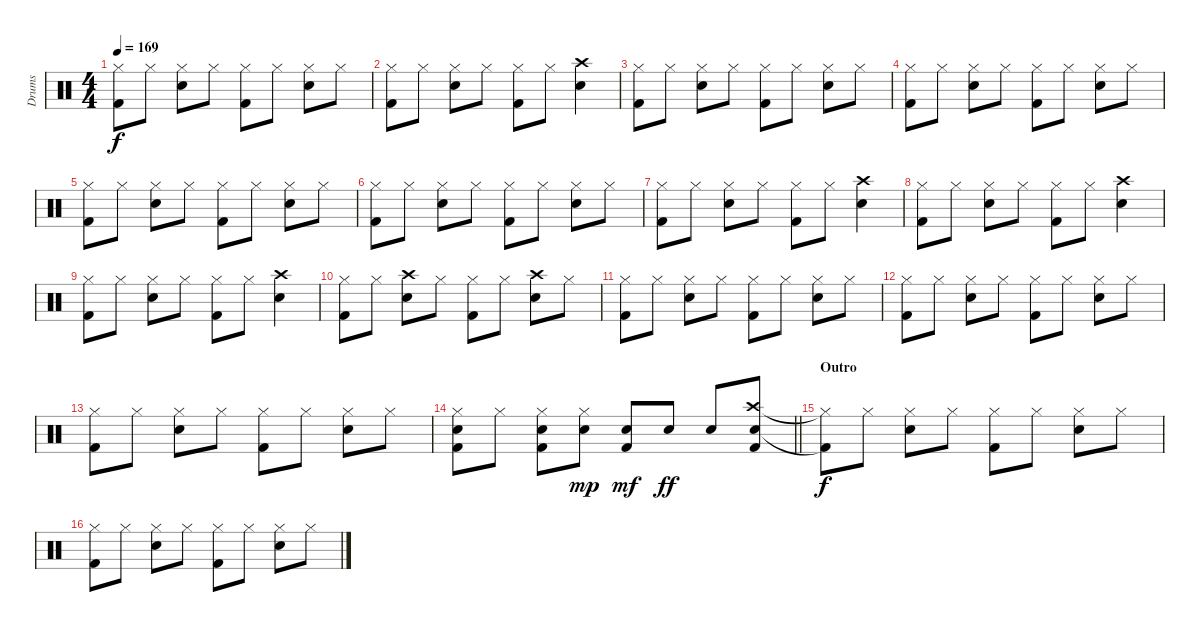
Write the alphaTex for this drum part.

\track ("Drums" "Drums") {instrument percussion}
\staff {score}
\articulation defaults
\ts (4 4)
\tempo 169
\clef neutral
\ks c
("Hi-Hat (closed)" "Kick (hit) 2").8{dy f} "Hi-Hat (closed)".8 ("Hi-Hat (closed)" "Snare (hit) 2").8 "Hi-Hat (closed)".8 ("Hi-Hat (closed)" "Kick (hit) 2").8 "Hi-Hat (closed)".8 ("Hi-Hat (closed)" "Snare (hit) 2").8 "Hi-Hat (closed)".8 |
("Hi-Hat (closed)" "Kick (hit) 2").8 "Hi-Hat (closed)".8 ("Hi-Hat (closed)" "Snare (hit) 2").8 "Hi-Hat (closed)".8 ("Hi-Hat (closed)" "Kick (hit) 2").8 "Hi-Hat (closed)".8 ("Crash high (hit)" "Snare (hit) 2").4 |
("Hi-Hat (closed)" "Kick (hit) 2").8 "Hi-Hat (closed)".8 ("Hi-Hat (closed)" "Snare (hit) 2").8 "Hi-Hat (closed)".8 ("Hi-Hat (closed)" "Kick (hit) 2").8 "Hi-Hat (closed)".8 ("Hi-Hat (closed)" "Snare (hit) 2").8 "Hi-Hat (closed)".8 |
("Hi-Hat (closed)" "Kick (hit) 2").8 "Hi-Hat (closed)".8 ("Hi-Hat (closed)" "Snare (hit) 2").8 "Hi-Hat (closed)".8 ("Hi-Hat (closed)" "Kick (hit) 2").8 "Hi-Hat (closed)".8 ("Hi-Hat (closed)" "Snare (hit) 2").8 "Hi-Hat (closed)".8 |
("Hi-Hat (closed)" "Kick (hit) 2").8 "Hi-Hat (closed)".8 ("Hi-Hat (closed)" "Snare (hit) 2").8 "Hi-Hat (closed)".8 ("Hi-Hat (closed)" "Kick (hit) 2").8 "Hi-Hat (closed)".8 ("Hi-Hat (closed)" "Snare (hit) 2").8 "Hi-Hat (closed)".8 |
("Hi-Hat (closed)" "Kick (hit) 2").8 "Hi-Hat (closed)".8 ("Hi-Hat (closed)" "Snare (hit) 2").8 "Hi-Hat (closed)".8 ("Hi-Hat (closed)" "Kick (hit) 2").8 "Hi-Hat (closed)".8 ("Hi-Hat (closed)" "Snare (hit) 2").8 "Hi-Hat (closed)".8 |
("Hi-Hat (closed)" "Kick (hit) 2").8 "Hi-Hat (closed)".8 ("Hi-Hat (closed)" "Snare (hit) 2").8 "Hi-Hat (closed)".8 ("Hi-Hat (closed)" "Kick (hit) 2").8 "Hi-Hat (closed)".8 ("Crash high (hit)" "Snare (hit) 2").4 |
("Hi-Hat (closed)" "Kick (hit) 2").8 "Hi-Hat (closed)".8 ("Hi-Hat (closed)" "Snare (hit) 2").8 "Hi-Hat (closed)".8 ("Hi-Hat (closed)" "Kick (hit) 2").8 "Hi-Hat (closed)".8 ("Crash high (hit)" "Snare (hit) 2").4 |
("Hi-Hat (closed)" "Kick (hit) 2").8 "Hi-Hat (closed)".8 ("Hi-Hat (closed)" "Snare (hit) 2").8 "Hi-Hat (closed)".8 ("Hi-Hat (closed)" "Kick (hit) 2").8 "Hi-Hat (closed)".8 ("Crash high (hit)" "Snare (hit) 2").4 |
("Hi-Hat (closed)" "Kick (hit) 2").8 "Hi-Hat (closed)".8 ("Crash high (hit)" "Snare (hit) 2").8 "Hi-Hat (closed)".8 ("Hi-Hat (closed)" "Kick (hit) 2").8 "Hi-Hat (closed)".8 ("Crash high (hit)" "Snare (hit) 2").8 "Hi-Hat (closed)".8 |
("Hi-Hat (closed)" "Kick (hit) 2").8 "Hi-Hat (closed)".8 ("Hi-Hat (closed)" "Snare (hit) 2").8 "Hi-Hat (closed)".8 ("Hi-Hat (closed)" "Kick (hit) 2").8 "Hi-Hat (closed)".8 ("Hi-Hat (closed)" "Snare (hit) 2").8 "Hi-Hat (closed)".8 |
("Hi-Hat (closed)" "Kick (hit) 2").8 "Hi-Hat (closed)".8 ("Hi-Hat (closed)" "Snare (hit) 2").8 "Hi-Hat (closed)".8 ("Hi-Hat (closed)" "Kick (hit) 2").8 "Hi-Hat (closed)".8 ("Hi-Hat (closed)" "Snare (hit) 2").8 "Hi-Hat (closed)".8 |
("Hi-Hat (closed)" "Kick (hit) 2").8 "Hi-Hat (closed)".8 ("Hi-Hat (closed)" "Snare (hit) 2").8 "Hi-Hat (closed)".8 ("Hi-Hat (closed)" "Kick (hit) 2").8 "Hi-Hat (closed)".8 ("Hi-Hat (closed)" "Snare (hit) 2").8 "Hi-Hat (closed)".8 |
\barLineRight lightlight
("Hi-Hat (closed)" "Snare (hit) 2" "Kick (hit) 2").8 "Hi-Hat (closed)".8 ("Hi-Hat (closed)" "Snare (hit) 2" "Kick (hit) 2").8 ("Hi-Hat (closed)" "Electric Snare (hit)").8{dy mp} ("Electric Snare (hit)" "Kick (hit) 2").8{dy mf} "Electric Snare (hit)".8{dy ff} "Electric Snare (hit)".8 ("Crash high (hit)" "Electric Snare (hit)" "Kick (hit) 2").8 |
\section ("" "Outro")
("Hi-Hat (closed)"{t} "Kick (hit) 2"{t}).8{dy f} "Hi-Hat (closed)".8 ("Hi-Hat (closed)" "Snare (hit) 2").8 "Hi-Hat (closed)".8 ("Hi-Hat (closed)" "Kick (hit) 2").8 "Hi-Hat (closed)".8 ("Hi-Hat (closed)" "Snare (hit) 2").8 "Hi-Hat (closed)".8 |
("Hi-Hat (closed)" "Kick (hit) 2").8 "Hi-Hat (closed)".8 ("Hi-Hat (closed)" "Snare (hit) 2").8 "Hi-Hat (closed)".8 ("Hi-Hat (closed)" "Kick (hit) 2").8 "Hi-Hat (closed)".8 ("Hi-Hat (closed)" "Snare (hit) 2").8 "Hi-Hat (closed)".8
